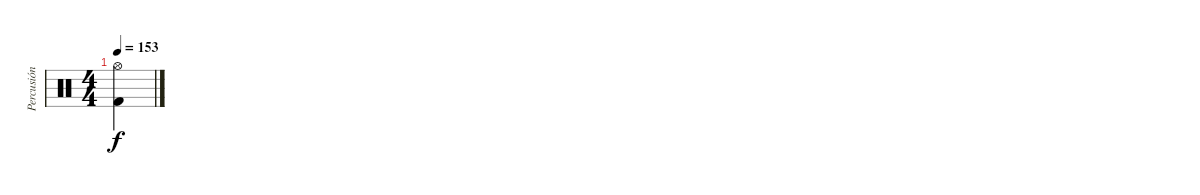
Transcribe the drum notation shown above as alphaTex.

\track ("Percusión" "Percusión") {instrument percussion}
\staff {score}
\articulation defaults
\ts (4 4)
\tempo 153
\clef neutral
\ks c
("Hi-Hat (open)" "Kick (hit) 2").4{dy f}
